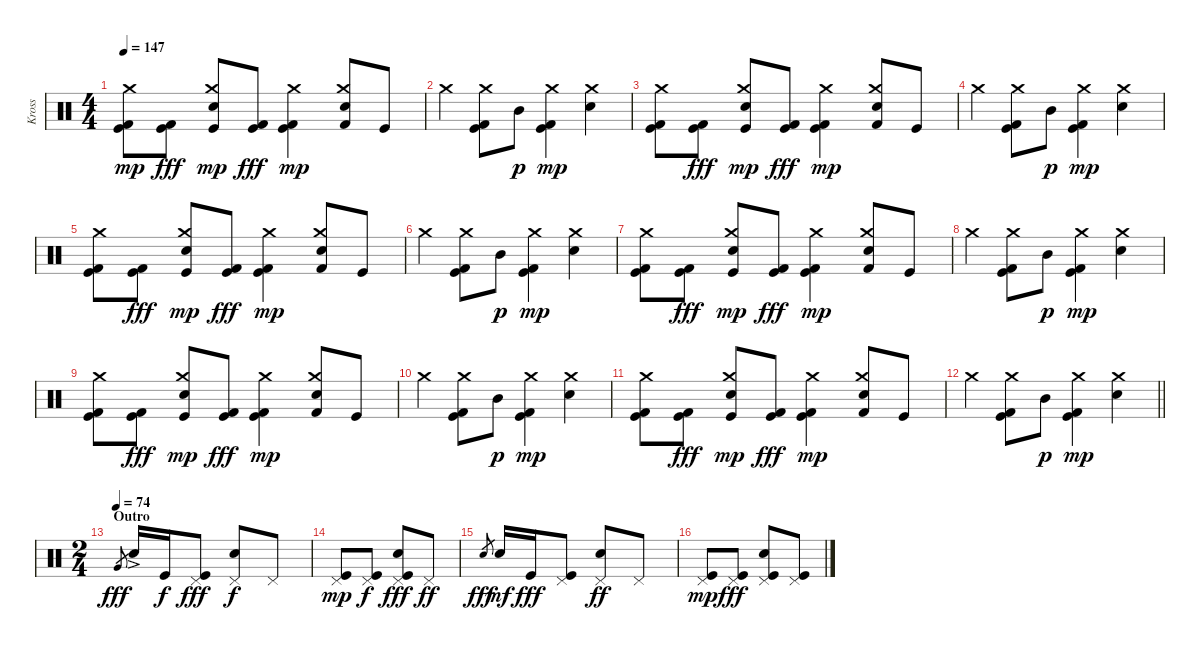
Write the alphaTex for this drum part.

\track ("Kross" "Kross") {instrument percussion}
\staff {score}
\articulation defaults
\ts (4 4)
\tempo 147
\clef neutral
\ks c
("Kick (hit) 2" "Kick (hit)" "Crash medium (hit)").8{dy mp} ("Kick (hit) 2" "Kick (hit)").8{dy fff} ("Snare (hit) 2" "Kick (hit)" "Crash medium (hit)").8{dy mp} ("Kick (hit) 2" "Kick (hit)").8{dy fff} ("Kick (hit) 2" "Kick (hit)" "Crash medium (hit)").4{dy mp} ("Snare (hit) 2" "Kick (hit) 2" "Crash medium (hit)").8 "Kick (hit)".8 |
"Crash medium (hit)".4 ("Kick (hit) 2" "Kick (hit)" "Crash medium (hit)").8 "Mid Tom (hit)".8{dy p} ("Kick (hit) 2" "Kick (hit)" "Crash medium (hit)").4{dy mp} ("Snare (hit) 2" "Crash medium (hit)").4 |
("Kick (hit) 2" "Kick (hit)" "Crash medium (hit)").8 ("Kick (hit) 2" "Kick (hit)").8{dy fff} ("Snare (hit) 2" "Kick (hit)" "Crash medium (hit)").8{dy mp} ("Kick (hit) 2" "Kick (hit)").8{dy fff} ("Kick (hit) 2" "Kick (hit)" "Crash medium (hit)").4{dy mp} ("Snare (hit) 2" "Kick (hit) 2" "Crash medium (hit)").8 "Kick (hit)".8 |
"Crash medium (hit)".4 ("Kick (hit) 2" "Kick (hit)" "Crash medium (hit)").8 "Mid Tom (hit)".8{dy p} ("Kick (hit) 2" "Kick (hit)" "Crash medium (hit)").4{dy mp} ("Snare (hit) 2" "Crash medium (hit)").4 |
("Kick (hit) 2" "Kick (hit)" "Crash medium (hit)").8 ("Kick (hit) 2" "Kick (hit)").8{dy fff} ("Snare (hit) 2" "Kick (hit)" "Crash medium (hit)").8{dy mp} ("Kick (hit) 2" "Kick (hit)").8{dy fff} ("Kick (hit) 2" "Kick (hit)" "Crash medium (hit)").4{dy mp} ("Snare (hit) 2" "Kick (hit) 2" "Crash medium (hit)").8 "Kick (hit)".8 |
"Crash medium (hit)".4 ("Kick (hit) 2" "Kick (hit)" "Crash medium (hit)").8 "Mid Tom (hit)".8{dy p} ("Kick (hit) 2" "Kick (hit)" "Crash medium (hit)").4{dy mp} ("Snare (hit) 2" "Crash medium (hit)").4 |
("Kick (hit) 2" "Kick (hit)" "Crash medium (hit)").8 ("Kick (hit) 2" "Kick (hit)").8{dy fff} ("Snare (hit) 2" "Kick (hit)" "Crash medium (hit)").8{dy mp} ("Kick (hit) 2" "Kick (hit)").8{dy fff} ("Kick (hit) 2" "Kick (hit)" "Crash medium (hit)").4{dy mp} ("Snare (hit) 2" "Kick (hit) 2" "Crash medium (hit)").8 "Kick (hit)".8 |
"Crash medium (hit)".4 ("Kick (hit) 2" "Kick (hit)" "Crash medium (hit)").8 "Mid Tom (hit)".8{dy p} ("Kick (hit) 2" "Kick (hit)" "Crash medium (hit)").4{dy mp} ("Snare (hit) 2" "Crash medium (hit)").4 |
("Kick (hit) 2" "Kick (hit)" "Crash medium (hit)").8 ("Kick (hit) 2" "Kick (hit)").8{dy fff} ("Snare (hit) 2" "Kick (hit)" "Crash medium (hit)").8{dy mp} ("Kick (hit) 2" "Kick (hit)").8{dy fff} ("Kick (hit) 2" "Kick (hit)" "Crash medium (hit)").4{dy mp} ("Snare (hit) 2" "Kick (hit) 2" "Crash medium (hit)").8 "Kick (hit)".8 |
"Crash medium (hit)".4 ("Kick (hit) 2" "Kick (hit)" "Crash medium (hit)").8 "Mid Tom (hit)".8{dy p} ("Kick (hit) 2" "Kick (hit)" "Crash medium (hit)").4{dy mp} ("Snare (hit) 2" "Crash medium (hit)").4 |
("Kick (hit) 2" "Kick (hit)" "Crash medium (hit)").8 ("Kick (hit) 2" "Kick (hit)").8{dy fff} ("Snare (hit) 2" "Kick (hit)" "Crash medium (hit)").8{dy mp} ("Kick (hit) 2" "Kick (hit)").8{dy fff} ("Kick (hit) 2" "Kick (hit)" "Crash medium (hit)").4{dy mp} ("Snare (hit) 2" "Kick (hit) 2" "Crash medium (hit)").8 "Kick (hit)".8 |
\barLineRight lightlight "Crash medium (hit)".4
("Kick (hit) 2" "Kick (hit)" "Crash medium (hit)").8 "Mid Tom (hit)".8{dy p} ("Kick (hit) 2" "Kick (hit)" "Crash medium (hit)").4{dy mp} ("Snare (hit) 2" "Crash medium (hit)").4 |
\ts (2 4)
\section ("" "Outro")
\tempo (74)
"Very Low Tom (hit)"{h}.8{gr dy fff} "Electric Snare (hit)"{ac}.16 "Kick (hit)".16{dy f} ("Pedal Hi-Hat (hit)" "Kick (hit)").8{dy fff} ("Snare (hit) 2" "Pedal Hi-Hat (hit)").8{dy f} "Pedal Hi-Hat (hit)".8 |
("Kick (hit)" "Pedal Hi-Hat (hit)").8{dy mp} ("Kick (hit)" "Pedal Hi-Hat (hit)").8{dy f} ("Kick (hit)" "Snare (hit) 2" "Pedal Hi-Hat (hit)").8{dy fff} "Pedal Hi-Hat (hit)".8{dy ff} |
"Electric Snare (hit)".8{gr dy fff} "Electric Snare (hit)".16{dy mf} "Kick (hit)".16{dy fff} ("Pedal Hi-Hat (hit)" "Kick (hit)").8 ("Snare (hit) 2" "Pedal Hi-Hat (hit)").8{dy ff} "Pedal Hi-Hat (hit)".8 |
("Kick (hit)" "Pedal Hi-Hat (hit)").8{dy mp volume 0 balance 16} ("Kick (hit)" "Pedal Hi-Hat (hit)").8{dy fff} ("Kick (hit)" "Snare (hit) 2" "Pedal Hi-Hat (hit)").8 ("Pedal Hi-Hat (hit)" "Kick (hit)").8
